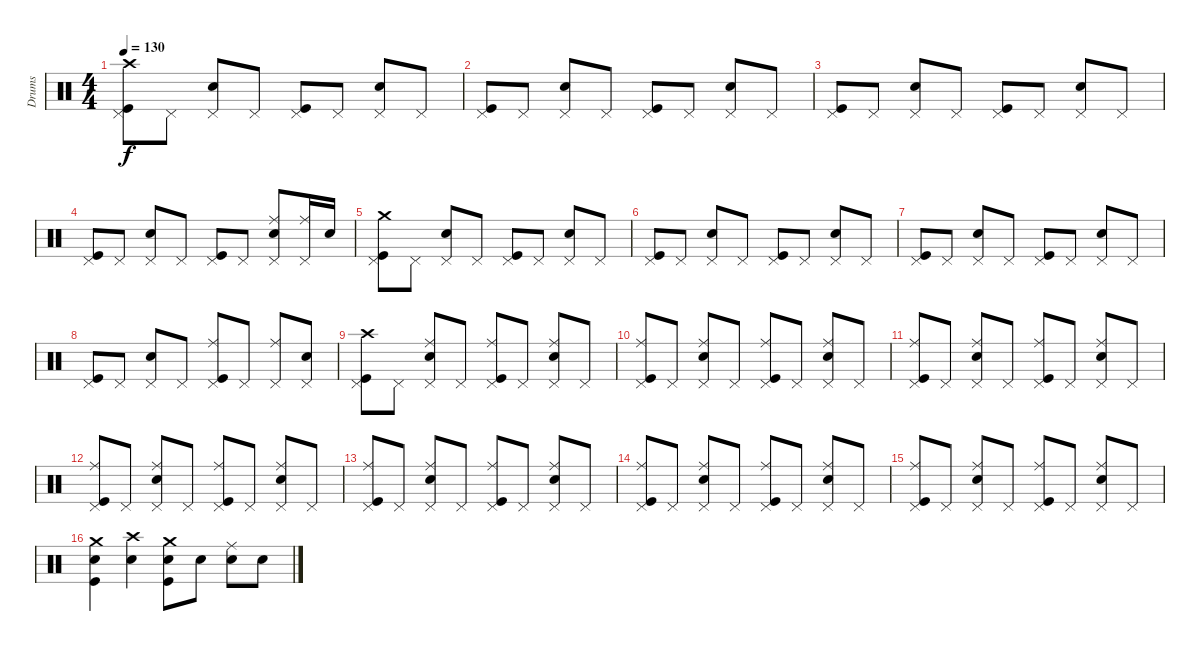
\track ("Drums" "Drums") {instrument percussion}
\staff {score}
\articulation defaults
\ts (4 4)
\tempo 130
\clef neutral
\ks c
("Crash high (hit)" "Pedal Hi-Hat (hit)" "Kick (hit)").8{dy f} "Pedal Hi-Hat (hit)".8 ("Pedal Hi-Hat (hit)" "Electric Snare (hit)").8 "Pedal Hi-Hat (hit)".8 ("Pedal Hi-Hat (hit)" "Kick (hit)").8 "Pedal Hi-Hat (hit)".8 ("Pedal Hi-Hat (hit)" "Electric Snare (hit)").8 "Pedal Hi-Hat (hit)".8 |
("Pedal Hi-Hat (hit)" "Kick (hit)").8 "Pedal Hi-Hat (hit)".8 ("Pedal Hi-Hat (hit)" "Electric Snare (hit)").8 "Pedal Hi-Hat (hit)".8 ("Pedal Hi-Hat (hit)" "Kick (hit)").8 "Pedal Hi-Hat (hit)".8 ("Pedal Hi-Hat (hit)" "Electric Snare (hit)").8 "Pedal Hi-Hat (hit)".8 |
("Pedal Hi-Hat (hit)" "Kick (hit)").8 "Pedal Hi-Hat (hit)".8 ("Pedal Hi-Hat (hit)" "Electric Snare (hit)").8 "Pedal Hi-Hat (hit)".8 ("Pedal Hi-Hat (hit)" "Kick (hit)").8 "Pedal Hi-Hat (hit)".8 ("Pedal Hi-Hat (hit)" "Electric Snare (hit)").8 "Pedal Hi-Hat (hit)".8 |
("Pedal Hi-Hat (hit)" "Kick (hit)").8 "Pedal Hi-Hat (hit)".8 ("Pedal Hi-Hat (hit)" "Electric Snare (hit)").8 "Pedal Hi-Hat (hit)".8 ("Pedal Hi-Hat (hit)" "Kick (hit)").8 "Pedal Hi-Hat (hit)".8 ("Ride (middle)" "Pedal Hi-Hat (hit)" "Electric Snare (hit)").8 ("Ride (middle)" "Pedal Hi-Hat (hit)").16 "Electric Snare (hit)".16 |
("Crash medium (hit)" "Pedal Hi-Hat (hit)" "Kick (hit)").8 "Pedal Hi-Hat (hit)".8 ("Pedal Hi-Hat (hit)" "Electric Snare (hit)").8 "Pedal Hi-Hat (hit)".8 ("Pedal Hi-Hat (hit)" "Kick (hit)").8 "Pedal Hi-Hat (hit)".8 ("Pedal Hi-Hat (hit)" "Electric Snare (hit)").8 "Pedal Hi-Hat (hit)".8 |
("Pedal Hi-Hat (hit)" "Kick (hit)").8 "Pedal Hi-Hat (hit)".8 ("Pedal Hi-Hat (hit)" "Electric Snare (hit)").8 "Pedal Hi-Hat (hit)".8 ("Pedal Hi-Hat (hit)" "Kick (hit)").8 "Pedal Hi-Hat (hit)".8 ("Pedal Hi-Hat (hit)" "Electric Snare (hit)").8 "Pedal Hi-Hat (hit)".8 |
("Pedal Hi-Hat (hit)" "Kick (hit)").8 "Pedal Hi-Hat (hit)".8 ("Pedal Hi-Hat (hit)" "Electric Snare (hit)").8 "Pedal Hi-Hat (hit)".8 ("Pedal Hi-Hat (hit)" "Kick (hit)").8 "Pedal Hi-Hat (hit)".8 ("Pedal Hi-Hat (hit)" "Electric Snare (hit)").8 "Pedal Hi-Hat (hit)".8 |
("Pedal Hi-Hat (hit)" "Kick (hit)").8 "Pedal Hi-Hat (hit)".8 ("Pedal Hi-Hat (hit)" "Electric Snare (hit)").8 "Pedal Hi-Hat (hit)".8 ("Ride (middle)" "Pedal Hi-Hat (hit)" "Kick (hit)").8 "Pedal Hi-Hat (hit)".8 ("Ride (middle)" "Pedal Hi-Hat (hit)").8 ("Electric Snare (hit)" "Pedal Hi-Hat (hit)").8 |
("Crash high (hit)" "Pedal Hi-Hat (hit)" "Kick (hit)").8 "Pedal Hi-Hat (hit)".8 ("Ride (middle)" "Pedal Hi-Hat (hit)" "Electric Snare (hit)").8 "Pedal Hi-Hat (hit)".8 ("Ride (middle)" "Pedal Hi-Hat (hit)" "Kick (hit)").8 "Pedal Hi-Hat (hit)".8 ("Ride (middle)" "Pedal Hi-Hat (hit)" "Electric Snare (hit)").8 "Pedal Hi-Hat (hit)".8 |
("Ride (middle)" "Pedal Hi-Hat (hit)" "Kick (hit)").8 "Pedal Hi-Hat (hit)".8 ("Ride (middle)" "Pedal Hi-Hat (hit)" "Electric Snare (hit)").8 "Pedal Hi-Hat (hit)".8 ("Ride (middle)" "Pedal Hi-Hat (hit)" "Kick (hit)").8 "Pedal Hi-Hat (hit)".8 ("Ride (middle)" "Pedal Hi-Hat (hit)" "Electric Snare (hit)").8 "Pedal Hi-Hat (hit)".8 |
("Ride (middle)" "Pedal Hi-Hat (hit)" "Kick (hit)").8 "Pedal Hi-Hat (hit)".8 ("Ride (middle)" "Pedal Hi-Hat (hit)" "Electric Snare (hit)").8 "Pedal Hi-Hat (hit)".8 ("Ride (middle)" "Pedal Hi-Hat (hit)" "Kick (hit)").8 "Pedal Hi-Hat (hit)".8 ("Ride (middle)" "Pedal Hi-Hat (hit)" "Electric Snare (hit)").8 "Pedal Hi-Hat (hit)".8 |
("Ride (middle)" "Pedal Hi-Hat (hit)" "Kick (hit)").8 "Pedal Hi-Hat (hit)".8 ("Ride (middle)" "Pedal Hi-Hat (hit)" "Electric Snare (hit)").8 "Pedal Hi-Hat (hit)".8 ("Ride (middle)" "Pedal Hi-Hat (hit)" "Kick (hit)").8 "Pedal Hi-Hat (hit)".8 ("Ride (middle)" "Pedal Hi-Hat (hit)" "Electric Snare (hit)").8 "Pedal Hi-Hat (hit)".8 |
("Ride (middle)" "Pedal Hi-Hat (hit)" "Kick (hit)").8 "Pedal Hi-Hat (hit)".8 ("Ride (middle)" "Pedal Hi-Hat (hit)" "Electric Snare (hit)").8 "Pedal Hi-Hat (hit)".8 ("Ride (middle)" "Pedal Hi-Hat (hit)" "Kick (hit)").8 "Pedal Hi-Hat (hit)".8 ("Ride (middle)" "Pedal Hi-Hat (hit)" "Electric Snare (hit)").8 "Pedal Hi-Hat (hit)".8 |
("Ride (middle)" "Pedal Hi-Hat (hit)" "Kick (hit)").8 "Pedal Hi-Hat (hit)".8 ("Ride (middle)" "Pedal Hi-Hat (hit)" "Electric Snare (hit)").8 "Pedal Hi-Hat (hit)".8 ("Ride (middle)" "Pedal Hi-Hat (hit)" "Kick (hit)").8 "Pedal Hi-Hat (hit)".8 ("Ride (middle)" "Pedal Hi-Hat (hit)" "Electric Snare (hit)").8 "Pedal Hi-Hat (hit)".8 |
("Ride (middle)" "Pedal Hi-Hat (hit)" "Kick (hit)").8 "Pedal Hi-Hat (hit)".8 ("Ride (middle)" "Pedal Hi-Hat (hit)" "Electric Snare (hit)").8 "Pedal Hi-Hat (hit)".8 ("Ride (middle)" "Pedal Hi-Hat (hit)" "Kick (hit)").8 "Pedal Hi-Hat (hit)".8 ("Ride (middle)" "Pedal Hi-Hat (hit)" "Electric Snare (hit)").8 "Pedal Hi-Hat (hit)".8 |
("Electric Snare (hit)" "Crash medium (hit)" "Kick (hit)").4 ("Crash high (hit)" "Electric Snare (hit)").4 ("Electric Snare (hit)" "Crash medium (hit)" "Kick (hit)").8 "Electric Snare (hit)".8 ("Ride (middle)" "Electric Snare (hit)").8 "Electric Snare (hit)".8
